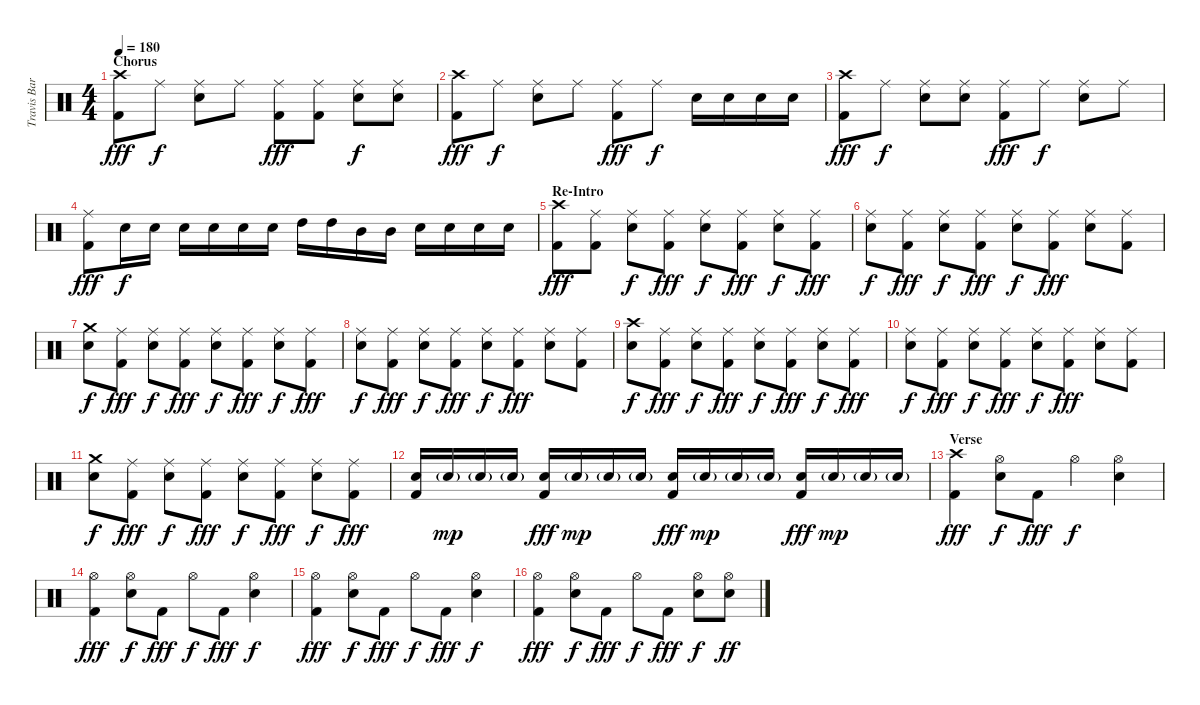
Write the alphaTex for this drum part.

\track ("Travis Barker" "Travis Bar") {instrument percussion}
\staff {score}
\articulation defaults
\ts (4 4)
\section ("" "Chorus")
\tempo 180
\clef neutral
\ks c
("Crash high (hit)" "Kick (hit) 2").8{dy fff} "Ride (middle)".8{dy f} ("Ride (middle)" "Electric Snare (hit)").8 "Ride (middle)".8 ("Ride (middle)" "Kick (hit) 2").8{dy fff} ("Ride (middle)" "Kick (hit) 2").8 ("Ride (middle)" "Electric Snare (hit)").8{dy f} ("Ride (middle)" "Electric Snare (hit)").8 |
("Crash high (hit)" "Kick (hit) 2").8{dy fff} "Ride (middle)".8{dy f} ("Ride (middle)" "Electric Snare (hit)").8 "Ride (middle)".8 ("Ride (middle)" "Kick (hit) 2").8{dy fff} "Ride (middle)".8{dy f} "Electric Snare (hit)".16 "Electric Snare (hit)".16 "Electric Snare (hit)".16 "Electric Snare (hit)".16 |
("Crash high (hit)" "Kick (hit) 2").8{dy fff} "Ride (middle)".8{dy f} ("Ride (middle)" "Electric Snare (hit)").8 ("Ride (middle)" "Electric Snare (hit)").8 ("Ride (middle)" "Kick (hit) 2").8{dy fff} "Ride (middle)".8{dy f} ("Ride (middle)" "Electric Snare (hit)").8 "Ride (middle)".8 |
("Ride (middle)" "Kick (hit) 2").8{dy fff} "Electric Snare (hit)".16{dy f} "Electric Snare (hit)".16 "Electric Snare (hit)".16 "Electric Snare (hit)".16 "Electric Snare (hit)".16 "Electric Snare (hit)".16 "High Tom (hit)".16 "High Tom (hit)".16 "Mid Tom (hit)".16 "Mid Tom (hit)".16 "Electric Snare (hit)".16 "Electric Snare (hit)".16 "Electric Snare (hit)".16 "Electric Snare (hit)".16 |
\section ("" "Re-Intro")
("Crash high (hit)" "Kick (hit) 2").8{dy fff} ("Ride (middle)" "Kick (hit) 2").8 ("Ride (middle)" "Electric Snare (hit)").8{dy f} ("Ride (middle)" "Kick (hit) 2").8{dy fff} ("Ride (middle)" "Electric Snare (hit)").8{dy f} ("Ride (middle)" "Kick (hit) 2").8{dy fff} ("Ride (middle)" "Electric Snare (hit)").8{dy f} ("Ride (middle)" "Kick (hit) 2").8{dy fff} |
("Ride (middle)" "Electric Snare (hit)").8{dy f} ("Ride (middle)" "Kick (hit) 2").8{dy fff} ("Ride (middle)" "Electric Snare (hit)").8{dy f} ("Ride (middle)" "Kick (hit) 2").8{dy fff} ("Ride (middle)" "Electric Snare (hit)").8{dy f} ("Ride (middle)" "Kick (hit) 2").8{dy fff} ("Ride (middle)" "Electric Snare (hit)").8 ("Ride (middle)" "Kick (hit) 2").8 |
("Crash medium (hit)" "Electric Snare (hit)").8{dy f} ("Ride (middle)" "Kick (hit) 2").8{dy fff} ("Ride (middle)" "Electric Snare (hit)").8{dy f} ("Ride (middle)" "Kick (hit) 2").8{dy fff} ("Ride (middle)" "Electric Snare (hit)").8{dy f} ("Ride (middle)" "Kick (hit) 2").8{dy fff} ("Ride (middle)" "Electric Snare (hit)").8{dy f} ("Ride (middle)" "Kick (hit) 2").8{dy fff} |
("Ride (middle)" "Electric Snare (hit)").8{dy f} ("Ride (middle)" "Kick (hit) 2").8{dy fff} ("Ride (middle)" "Electric Snare (hit)").8{dy f} ("Ride (middle)" "Kick (hit) 2").8{dy fff} ("Ride (middle)" "Electric Snare (hit)").8{dy f} ("Ride (middle)" "Kick (hit) 2").8{dy fff} ("Ride (middle)" "Electric Snare (hit)").8 ("Ride (middle)" "Kick (hit) 2").8 |
("Crash high (hit)" "Electric Snare (hit)").8{dy f} ("Ride (middle)" "Kick (hit) 2").8{dy fff} ("Ride (middle)" "Electric Snare (hit)").8{dy f} ("Ride (middle)" "Kick (hit) 2").8{dy fff} ("Ride (middle)" "Electric Snare (hit)").8{dy f} ("Ride (middle)" "Kick (hit) 2").8{dy fff} ("Ride (middle)" "Electric Snare (hit)").8{dy f} ("Ride (middle)" "Kick (hit) 2").8{dy fff} |
("Ride (middle)" "Electric Snare (hit)").8{dy f} ("Ride (middle)" "Kick (hit) 2").8{dy fff} ("Ride (middle)" "Electric Snare (hit)").8{dy f} ("Ride (middle)" "Kick (hit) 2").8{dy fff} ("Ride (middle)" "Electric Snare (hit)").8{dy f} ("Ride (middle)" "Kick (hit) 2").8{dy fff} ("Ride (middle)" "Electric Snare (hit)").8 ("Ride (middle)" "Kick (hit) 2").8 |
("Crash medium (hit)" "Electric Snare (hit)").8{dy f} ("Ride (middle)" "Kick (hit) 2").8{dy fff} ("Ride (middle)" "Electric Snare (hit)").8{dy f} ("Ride (middle)" "Kick (hit) 2").8{dy fff} ("Ride (middle)" "Electric Snare (hit)").8{dy f} ("Ride (middle)" "Kick (hit) 2").8{dy fff} ("Ride (middle)" "Electric Snare (hit)").8{dy f} ("Ride (middle)" "Kick (hit) 2").8{dy fff} |
("Electric Snare (hit)" "Kick (hit) 2").16 "Electric Snare (hit)"{g}.16{dy mp} "Electric Snare (hit)"{g}.16 "Electric Snare (hit)"{g}.16 ("Electric Snare (hit)" "Kick (hit) 2").16{dy fff} "Electric Snare (hit)"{g}.16{dy mp} "Electric Snare (hit)"{g}.16 "Electric Snare (hit)"{g}.16 ("Electric Snare (hit)" "Kick (hit) 2").16{dy fff} "Electric Snare (hit)"{g}.16{dy mp} "Electric Snare (hit)"{g}.16 "Electric Snare (hit)"{g}.16 ("Electric Snare (hit)" "Kick (hit) 2").16{dy fff} "Electric Snare (hit)"{g}.16{dy mp} "Electric Snare (hit)"{g}.16 "Electric Snare (hit)"{g}.16 |
\section ("" "Verse")
("Crash high (hit)" "Kick (hit) 2").4{dy fff} ("Hi-Hat (open)" "Electric Snare (hit)").8{dy f} "Kick (hit) 2".8{dy fff} "Hi-Hat (open)".4{dy f} ("Hi-Hat (open)" "Electric Snare (hit)").4 |
("Hi-Hat (open)" "Kick (hit) 2").4{dy fff} ("Hi-Hat (open)" "Electric Snare (hit)").8{dy f} "Kick (hit) 2".8{dy fff} "Hi-Hat (open)".8{dy f} "Kick (hit) 2".8{dy fff} ("Hi-Hat (open)" "Electric Snare (hit)").4{dy f} |
("Hi-Hat (open)" "Kick (hit) 2").4{dy fff} ("Hi-Hat (open)" "Electric Snare (hit)").8{dy f} "Kick (hit) 2".8{dy fff} "Hi-Hat (open)".8{dy f} "Kick (hit) 2".8{dy fff} ("Hi-Hat (open)" "Electric Snare (hit)").4{dy f} |
("Hi-Hat (open)" "Kick (hit) 2").4{dy fff} ("Hi-Hat (open)" "Electric Snare (hit)").8{dy f} "Kick (hit) 2".8{dy fff} "Hi-Hat (open)".8{dy f} "Kick (hit) 2".8{dy fff} ("Hi-Hat (open)" "Electric Snare (hit)").8{dy f} ("Hi-Hat (open)" "Electric Snare (hit)").8{dy ff}
